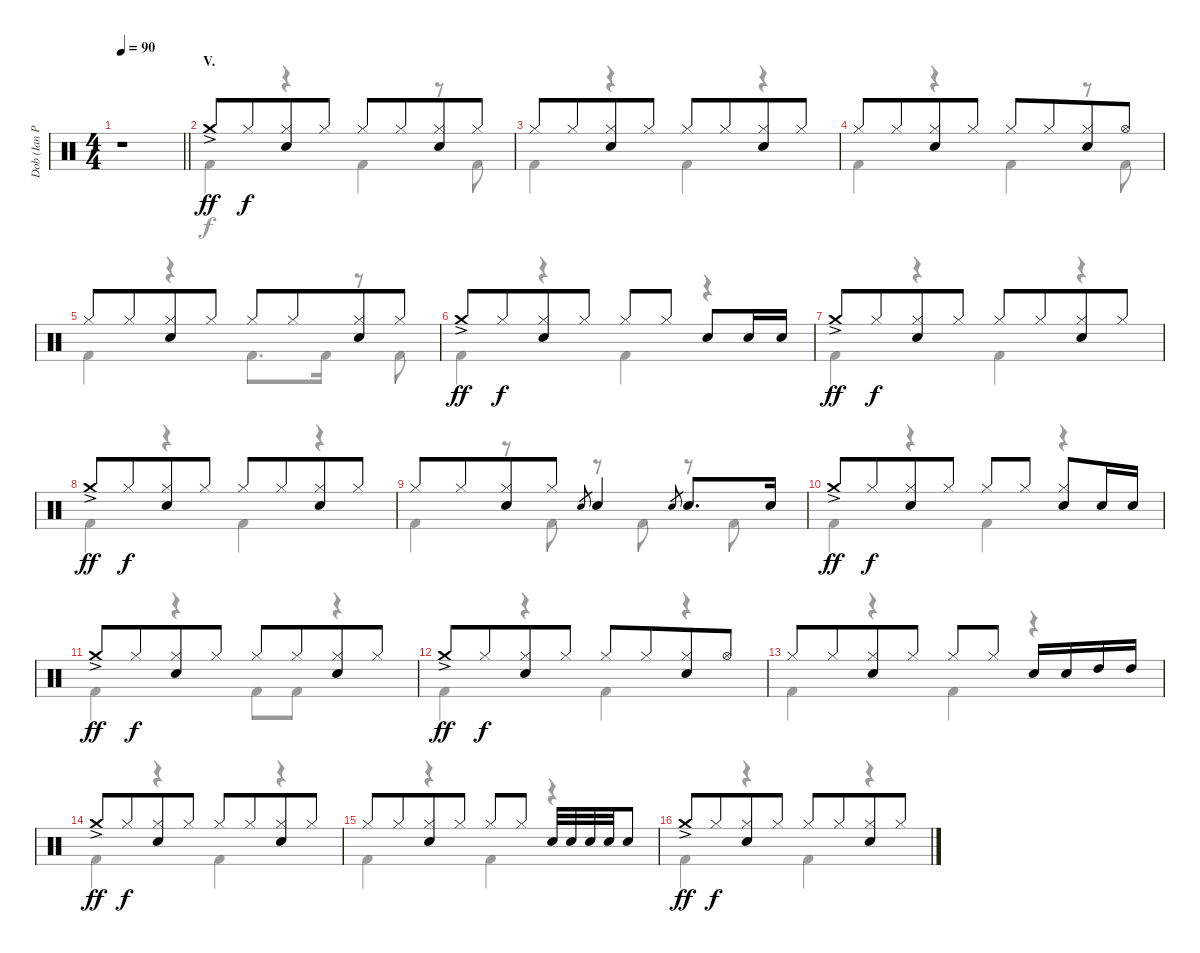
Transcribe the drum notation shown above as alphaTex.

\track ("Dob (Ian Paice)" "Dob (Ian P") {instrument percussion}
\staff {score}
\articulation defaults
\voice
\ts (4 4)
\tempo 90
\clef neutral
\barLineRight lightlight
\ks c
r.1{dy ff} |
\section ("" "V.")
"Crash medium (hit)"{ac}.8 "Hi-Hat (closed)".8{dy f beam merge} ("Hi-Hat (closed)" "Electric Snare (hit)").8 "Hi-Hat (closed)".8 "Hi-Hat (closed)".8 "Hi-Hat (closed)".8{beam merge} ("Hi-Hat (closed)" "Electric Snare (hit)").8 "Hi-Hat (closed)".8 |
"Hi-Hat (closed)".8 "Hi-Hat (closed)".8{beam merge} ("Hi-Hat (closed)" "Electric Snare (hit)").8 "Hi-Hat (closed)".8 "Hi-Hat (closed)".8 "Hi-Hat (closed)".8{beam merge} ("Hi-Hat (closed)" "Electric Snare (hit)").8 "Hi-Hat (closed)".8 |
"Hi-Hat (closed)".8 "Hi-Hat (closed)".8{beam merge} ("Hi-Hat (closed)" "Electric Snare (hit)").8 "Hi-Hat (closed)".8 "Hi-Hat (closed)".8 "Hi-Hat (closed)".8{beam merge} ("Hi-Hat (closed)" "Electric Snare (hit)").8 "Hi-Hat (open)".8 |
"Hi-Hat (closed)".8 "Hi-Hat (closed)".8{beam merge} ("Hi-Hat (closed)" "Electric Snare (hit)").8 "Hi-Hat (closed)".8 "Hi-Hat (closed)".8 "Hi-Hat (closed)".8{beam merge} ("Hi-Hat (closed)" "Electric Snare (hit)").8 "Hi-Hat (closed)".8 |
"Crash medium (hit)"{ac}.8{dy ff} "Hi-Hat (closed)".8{dy f beam merge} ("Hi-Hat (closed)" "Electric Snare (hit)").8 "Hi-Hat (closed)".8 "Hi-Hat (closed)".8 "Hi-Hat (closed)".8 "Electric Snare (hit)".8 "Electric Snare (hit)".16 "Electric Snare (hit)".16 |
"Crash medium (hit)"{ac}.8{dy ff} "Hi-Hat (closed)".8{dy f beam merge} ("Hi-Hat (closed)" "Electric Snare (hit)").8 "Hi-Hat (closed)".8 "Hi-Hat (closed)".8 "Hi-Hat (closed)".8{beam merge} ("Hi-Hat (closed)" "Electric Snare (hit)").8 "Hi-Hat (closed)".8 |
"Crash medium (hit)"{ac}.8{dy ff} "Hi-Hat (closed)".8{dy f beam merge} ("Hi-Hat (closed)" "Electric Snare (hit)").8 "Hi-Hat (closed)".8 "Hi-Hat (closed)".8 "Hi-Hat (closed)".8{beam merge} ("Hi-Hat (closed)" "Electric Snare (hit)").8 "Hi-Hat (closed)".8 |
"Hi-Hat (closed)".8 "Hi-Hat (closed)".8{beam merge} ("Hi-Hat (closed)" "Electric Snare (hit)").8 "Hi-Hat (closed)".8 "Electric Snare (hit)".8{gr} "Electric Snare (hit)".4 "Electric Snare (hit)".8{gr} "Electric Snare (hit)".8{d} "Electric Snare (hit)".16 |
"Crash medium (hit)"{ac}.8{dy ff} "Hi-Hat (closed)".8{dy f beam merge} ("Hi-Hat (closed)" "Electric Snare (hit)").8 "Hi-Hat (closed)".8 "Hi-Hat (closed)".8 "Hi-Hat (closed)".8 ("Hi-Hat (closed)" "Electric Snare (hit)").8 "Electric Snare (hit)".16 "Electric Snare (hit)".16 |
"Crash medium (hit)"{ac}.8{dy ff} "Hi-Hat (closed)".8{dy f beam merge} ("Hi-Hat (closed)" "Electric Snare (hit)").8 "Hi-Hat (closed)".8 "Hi-Hat (closed)".8 "Hi-Hat (closed)".8{beam merge} ("Hi-Hat (closed)" "Electric Snare (hit)").8 "Hi-Hat (closed)".8 |
"Crash medium (hit)"{ac}.8{dy ff} "Hi-Hat (closed)".8{dy f beam merge} ("Hi-Hat (closed)" "Electric Snare (hit)").8 "Hi-Hat (closed)".8 "Hi-Hat (closed)".8 "Hi-Hat (closed)".8{beam merge} ("Hi-Hat (closed)" "Electric Snare (hit)").8 "Hi-Hat (open)".8 |
"Hi-Hat (closed)".8 "Hi-Hat (closed)".8{beam merge} ("Hi-Hat (closed)" "Electric Snare (hit)").8 "Hi-Hat (closed)".8 "Hi-Hat (closed)".8 "Hi-Hat (closed)".8 "Electric Snare (hit)".16 "Electric Snare (hit)".16 "High Tom (hit)".16 "High Tom (hit)".16 |
"Crash medium (hit)"{ac}.8{dy ff} "Hi-Hat (closed)".8{dy f beam merge} ("Hi-Hat (closed)" "Electric Snare (hit)").8 "Hi-Hat (closed)".8 "Hi-Hat (closed)".8 "Hi-Hat (closed)".8{beam merge} ("Hi-Hat (closed)" "Electric Snare (hit)").8 "Hi-Hat (closed)".8 |
"Hi-Hat (closed)".8 "Hi-Hat (closed)".8{beam merge} ("Hi-Hat (closed)" "Electric Snare (hit)").8 "Hi-Hat (closed)".8 "Hi-Hat (closed)".8 "Hi-Hat (closed)".8 "Electric Snare (hit)".32 "Electric Snare (hit)".32 "Electric Snare (hit)".32 "Electric Snare (hit)".32 "Electric Snare (hit)".8 |
"Crash medium (hit)"{ac}.8{dy ff} "Hi-Hat (closed)".8{dy f beam merge} ("Hi-Hat (closed)" "Electric Snare (hit)").8 "Hi-Hat (closed)".8 "Hi-Hat (closed)".8 "Hi-Hat (closed)".8{beam merge} ("Hi-Hat (closed)" "Electric Snare (hit)").8 "Hi-Hat (closed)".8
\voice
\clef neutral
\ottava regular
\simile none
\barLineRight lightlight
\ks c
r.1{dy f} |
"Kick (hit) 2".4 r.4 "Kick (hit) 2".4 r.8 "Kick (hit) 2".8 |
"Kick (hit) 2".4 r.4 "Kick (hit) 2".4 r.4 |
"Kick (hit) 2".4 r.4 "Kick (hit) 2".4 r.8 "Kick (hit) 2".8 |
"Kick (hit) 2".4 r.4 "Kick (hit) 2".8{d} "Kick (hit) 2".16 r.8 "Kick (hit) 2".8 |
"Kick (hit) 2".4 r.4 "Kick (hit) 2".4 r.4 |
"Kick (hit) 2".4 r.4 "Kick (hit) 2".4 r.4 |
"Kick (hit) 2".4 r.4 "Kick (hit) 2".4 r.4 |
"Kick (hit) 2".4 r.8 "Kick (hit) 2".8 r.8 "Kick (hit) 2".8 r.8 "Kick (hit) 2".8 |
"Kick (hit) 2".4 r.4 "Kick (hit) 2".4 r.4 |
"Kick (hit) 2".4 r.4 "Kick (hit) 2".8 "Kick (hit) 2".8 r.4 |
"Kick (hit) 2".4 r.4 "Kick (hit) 2".4 r.4 |
"Kick (hit) 2".4 r.4 "Kick (hit) 2".4 r.4 |
"Kick (hit) 2".4 r.4 "Kick (hit) 2".4 r.4 |
"Kick (hit) 2".4 r.4 "Kick (hit) 2".4 r.4 |
"Kick (hit) 2".4 r.4 "Kick (hit) 2".4 r.4
